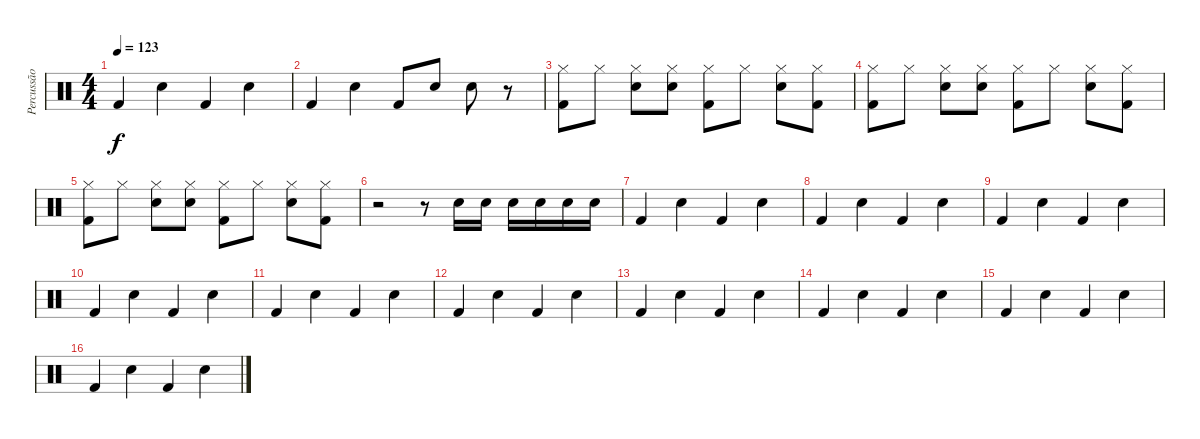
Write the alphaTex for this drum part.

\track ("Percussão" "Percussão") {instrument percussion}
\staff {score}
\articulation defaults
\ts (4 4)
\tempo 123
\clef neutral
\ks c "Kick (hit) 2".4{dy f} "Snare (hit) 2".4 "Kick (hit) 2".4 "Snare (hit) 2".4
|
"Kick (hit) 2".4 "Snare (hit) 2".4 "Kick (hit) 2".8 "Snare (hit) 2".8 "Snare (hit) 2".8 r.8 |
("Hi-Hat (closed)" "Kick (hit) 2").8 "Hi-Hat (closed)".8 ("Hi-Hat (closed)" "Snare (hit) 2").8 ("Hi-Hat (closed)" "Snare (hit) 2").8 ("Hi-Hat (closed)" "Kick (hit) 2").8 "Hi-Hat (closed)".8 ("Hi-Hat (closed)" "Snare (hit) 2").8 ("Hi-Hat (closed)" "Kick (hit) 2").8 |
("Hi-Hat (closed)" "Kick (hit) 2").8 "Hi-Hat (closed)".8 ("Hi-Hat (closed)" "Snare (hit) 2").8 ("Hi-Hat (closed)" "Snare (hit) 2").8 ("Hi-Hat (closed)" "Kick (hit) 2").8 "Hi-Hat (closed)".8 ("Hi-Hat (closed)" "Snare (hit) 2").8 ("Hi-Hat (closed)" "Kick (hit) 2").8 |
("Hi-Hat (closed)" "Kick (hit) 2").8 "Hi-Hat (closed)".8 ("Hi-Hat (closed)" "Snare (hit) 2").8 ("Hi-Hat (closed)" "Snare (hit) 2").8 ("Hi-Hat (closed)" "Kick (hit) 2").8 "Hi-Hat (closed)".8 ("Hi-Hat (closed)" "Snare (hit) 2").8 ("Hi-Hat (closed)" "Kick (hit) 2").8 |
r.2 r.8 "Snare (hit) 2".16 "Snare (hit) 2".16 "Snare (hit) 2".16 "Snare (hit) 2".16 "Snare (hit) 2".16 "Snare (hit) 2".16 |
"Kick (hit) 2".4 "Snare (hit) 2".4 "Kick (hit) 2".4 "Snare (hit) 2".4 |
"Kick (hit) 2".4 "Snare (hit) 2".4 "Kick (hit) 2".4 "Snare (hit) 2".4 |
"Kick (hit) 2".4 "Snare (hit) 2".4 "Kick (hit) 2".4 "Snare (hit) 2".4 |
"Kick (hit) 2".4 "Snare (hit) 2".4 "Kick (hit) 2".4 "Snare (hit) 2".4 |
"Kick (hit) 2".4 "Snare (hit) 2".4 "Kick (hit) 2".4 "Snare (hit) 2".4 |
"Kick (hit) 2".4 "Snare (hit) 2".4 "Kick (hit) 2".4 "Snare (hit) 2".4 |
"Kick (hit) 2".4 "Snare (hit) 2".4 "Kick (hit) 2".4 "Snare (hit) 2".4 |
"Kick (hit) 2".4 "Snare (hit) 2".4 "Kick (hit) 2".4 "Snare (hit) 2".4 |
"Kick (hit) 2".4 "Snare (hit) 2".4 "Kick (hit) 2".4 "Snare (hit) 2".4 |
"Kick (hit) 2".4 "Snare (hit) 2".4 "Kick (hit) 2".4 "Snare (hit) 2".4
